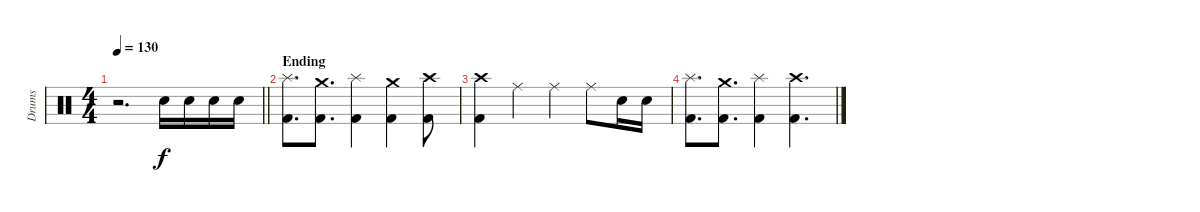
\track ("Drums" "Drums") {instrument percussion}
\staff {score}
\articulation defaults
\ts (4 4)
\tempo 130
\clef neutral
\barLineRight lightlight
\ks c
r.2{d dy f} "Snare (hit) 2".16 "Snare (hit) 2".16 "Snare (hit) 2".16 "Snare (hit) 2".16 |
\section ("" "Ending")
("Splash (hit)" "Kick (hit) 2").8{d} ("Crash medium (hit)" "Kick (hit) 2").8{d} ("Splash (hit)" "Kick (hit) 2").4 ("Crash medium (hit)" "Kick (hit) 2").4 ("Crash high (hit)" "Kick (hit) 2").8 |
("Crash high (hit)" "Kick (hit) 2").4 "Ride (middle)".4 "Ride (middle)".4 "Ride (middle)".8 "Snare (hit) 2".16 "Snare (hit) 2".16 |
("Splash (hit)" "Kick (hit) 2").8{d} ("Crash medium (hit)" "Kick (hit) 2").8{d} ("Splash (hit)" "Kick (hit) 2").4 ("Crash high (hit)" "Kick (hit) 2").4{d}
